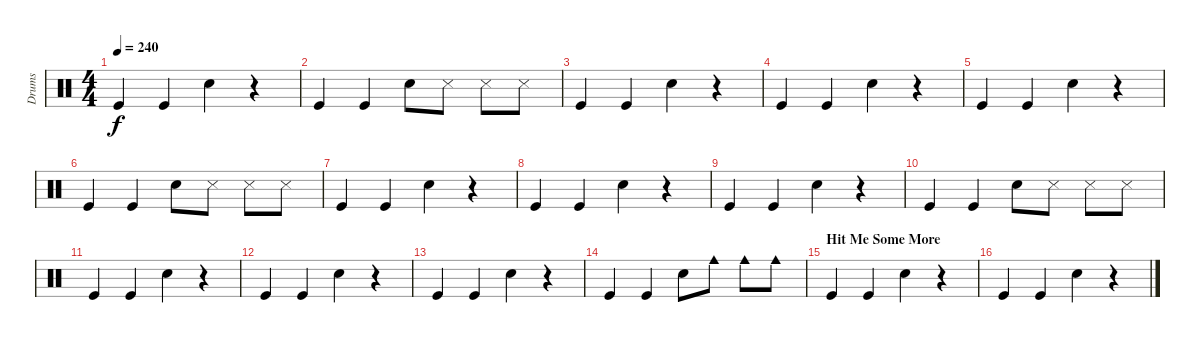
\track ("Drums" "Drums") {instrument percussion}
\staff {score}
\articulation defaults
\ts (4 4)
\tempo 240
\clef neutral
\ks c "Kick (hit)".4{dy f} "Kick (hit)".4 "Snare (hit) 2".4
r.4 |
"Kick (hit)".4 "Kick (hit)".4 "Snare (hit) 2".8 "Snare (side stick) 3".8 "Snare (side stick) 3".8 "Snare (side stick) 3".8 |
"Kick (hit)".4 "Kick (hit)".4 "Snare (hit) 2".4 r.4 |
"Kick (hit)".4 "Kick (hit)".4 "Snare (hit) 2".4 r.4 |
"Kick (hit)".4 "Kick (hit)".4 "Snare (hit) 2".4 r.4 |
"Kick (hit)".4 "Kick (hit)".4 "Snare (hit) 2".8 "Snare (side stick) 3".8 "Snare (side stick) 3".8 "Snare (side stick) 3".8 |
"Kick (hit)".4 "Kick (hit)".4 "Snare (hit) 2".4 r.4 |
"Kick (hit)".4 "Kick (hit)".4 "Snare (hit) 2".4 r.4 |
"Kick (hit)".4 "Kick (hit)".4 "Snare (hit) 2".4 r.4 |
"Kick (hit)".4 "Kick (hit)".4 "Snare (hit) 2".8 "Snare (side stick) 3".8 "Snare (side stick) 3".8 "Snare (side stick) 3".8 |
"Kick (hit)".4 "Kick (hit)".4 "Snare (hit) 2".4 r.4 |
"Kick (hit)".4 "Kick (hit)".4 "Snare (hit) 2".4 r.4 |
"Kick (hit)".4 "Kick (hit)".4 "Snare (hit) 2".4 r.4 |
"Kick (hit)".4 "Kick (hit)".4 "Snare (hit) 2".8 "Cowbell medium (hit)".8 "Cowbell medium (hit)".8 "Cowbell medium (hit)".8 |
\section ("" "Hit Me Some More")
"Kick (hit)".4 "Kick (hit)".4 "Snare (hit) 2".4 r.4 |
"Kick (hit)".4 "Kick (hit)".4 "Snare (hit) 2".4 r.4
